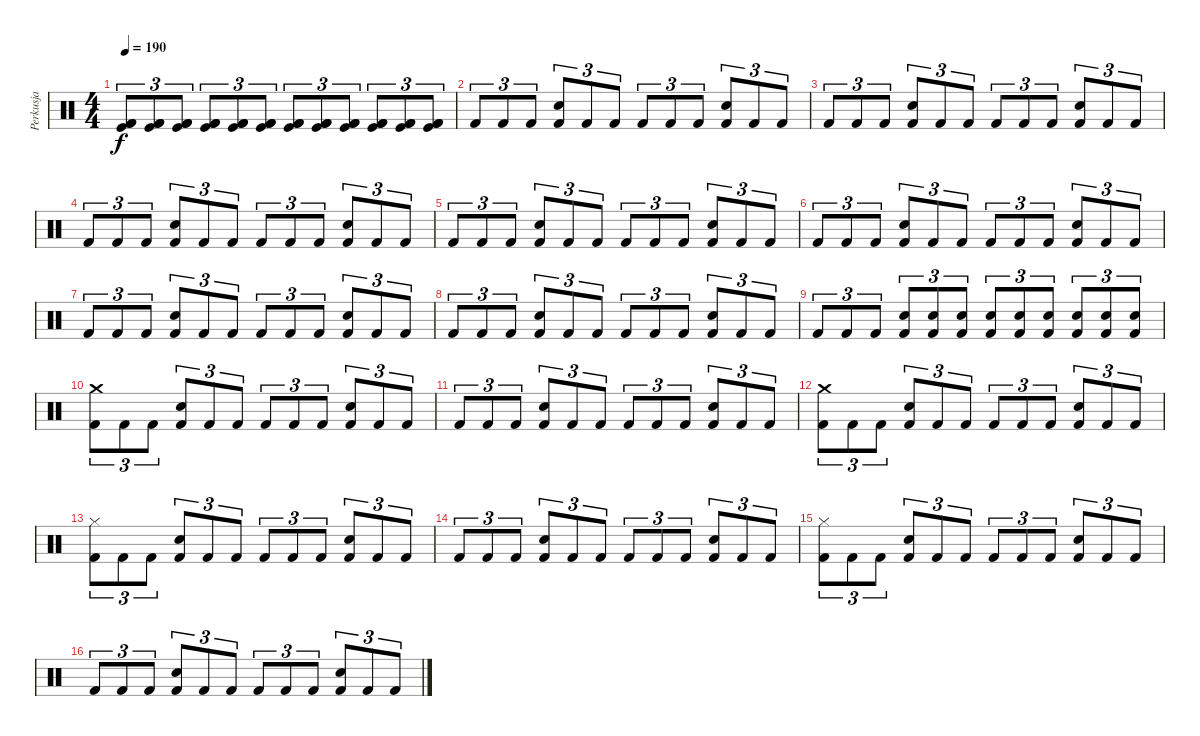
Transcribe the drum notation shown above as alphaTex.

\track ("Perkusja" "Perkusja") {instrument percussion}
\staff {score}
\articulation defaults
\ts (4 4)
\tempo 190
\clef neutral
\ks c
("Kick (hit) 2" "Kick (hit)" "Kick (hit) 2").8{tu (3 2) dy f balance 16} ("Kick (hit) 2" "Kick (hit)" "Kick (hit) 2").8{tu (3 2) balance 3} ("Kick (hit) 2" "Kick (hit)" "Kick (hit) 2").8{tu (3 2) balance 6} ("Kick (hit) 2" "Kick (hit)" "Kick (hit) 2").8{tu (3 2) balance 8} ("Kick (hit) 2" "Kick (hit)" "Kick (hit) 2").8{tu (3 2)} ("Kick (hit) 2" "Kick (hit)" "Kick (hit) 2").8{tu (3 2)} ("Kick (hit) 2" "Kick (hit)" "Kick (hit) 2").8{tu (3 2)} ("Kick (hit) 2" "Kick (hit)" "Kick (hit) 2").8{tu (3 2)} ("Kick (hit) 2" "Kick (hit)" "Kick (hit) 2").8{tu (3 2)} ("Kick (hit) 2" "Kick (hit)" "Kick (hit) 2").8{tu (3 2) balance 10} ("Kick (hit) 2" "Kick (hit)" "Kick (hit) 2").8{tu (3 2) balance 13} ("Kick (hit) 2" "Kick (hit)" "Kick (hit) 2").8{tu (3 2) balance 16} |
"Kick (hit) 2".8{tu (3 2) balance 8} "Kick (hit) 2".8{tu (3 2)} "Kick (hit) 2".8{tu (3 2)} ("Electric Snare (hit)" "Kick (hit) 2").8{tu (3 2)} "Kick (hit) 2".8{tu (3 2)} "Kick (hit) 2".8{tu (3 2)} "Kick (hit) 2".8{tu (3 2)} "Kick (hit) 2".8{tu (3 2)} "Kick (hit) 2".8{tu (3 2)} ("Electric Snare (hit)" "Kick (hit) 2").8{tu (3 2)} "Kick (hit) 2".8{tu (3 2)} "Kick (hit) 2".8{tu (3 2)} |
"Kick (hit) 2".8{tu (3 2)} "Kick (hit) 2".8{tu (3 2)} "Kick (hit) 2".8{tu (3 2)} ("Electric Snare (hit)" "Kick (hit) 2").8{tu (3 2)} "Kick (hit) 2".8{tu (3 2)} "Kick (hit) 2".8{tu (3 2)} "Kick (hit) 2".8{tu (3 2)} "Kick (hit) 2".8{tu (3 2)} "Kick (hit) 2".8{tu (3 2)} ("Electric Snare (hit)" "Kick (hit) 2").8{tu (3 2)} "Kick (hit) 2".8{tu (3 2)} "Kick (hit) 2".8{tu (3 2)} |
"Kick (hit) 2".8{tu (3 2)} "Kick (hit) 2".8{tu (3 2)} "Kick (hit) 2".8{tu (3 2)} ("Electric Snare (hit)" "Kick (hit) 2").8{tu (3 2)} "Kick (hit) 2".8{tu (3 2)} "Kick (hit) 2".8{tu (3 2)} "Kick (hit) 2".8{tu (3 2)} "Kick (hit) 2".8{tu (3 2)} "Kick (hit) 2".8{tu (3 2)} ("Electric Snare (hit)" "Kick (hit) 2").8{tu (3 2)} "Kick (hit) 2".8{tu (3 2)} "Kick (hit) 2".8{tu (3 2)} |
"Kick (hit) 2".8{tu (3 2)} "Kick (hit) 2".8{tu (3 2)} "Kick (hit) 2".8{tu (3 2)} ("Electric Snare (hit)" "Kick (hit) 2").8{tu (3 2)} "Kick (hit) 2".8{tu (3 2)} "Kick (hit) 2".8{tu (3 2)} "Kick (hit) 2".8{tu (3 2)} "Kick (hit) 2".8{tu (3 2)} "Kick (hit) 2".8{tu (3 2)} ("Electric Snare (hit)" "Kick (hit) 2").8{tu (3 2)} "Kick (hit) 2".8{tu (3 2)} "Kick (hit) 2".8{tu (3 2)} |
"Kick (hit) 2".8{tu (3 2)} "Kick (hit) 2".8{tu (3 2)} "Kick (hit) 2".8{tu (3 2)} ("Electric Snare (hit)" "Kick (hit) 2").8{tu (3 2)} "Kick (hit) 2".8{tu (3 2)} "Kick (hit) 2".8{tu (3 2)} "Kick (hit) 2".8{tu (3 2)} "Kick (hit) 2".8{tu (3 2)} "Kick (hit) 2".8{tu (3 2)} ("Electric Snare (hit)" "Kick (hit) 2").8{tu (3 2)} "Kick (hit) 2".8{tu (3 2)} "Kick (hit) 2".8{tu (3 2)} |
"Kick (hit) 2".8{tu (3 2)} "Kick (hit) 2".8{tu (3 2)} "Kick (hit) 2".8{tu (3 2)} ("Electric Snare (hit)" "Kick (hit) 2").8{tu (3 2)} "Kick (hit) 2".8{tu (3 2)} "Kick (hit) 2".8{tu (3 2)} "Kick (hit) 2".8{tu (3 2)} "Kick (hit) 2".8{tu (3 2)} "Kick (hit) 2".8{tu (3 2)} ("Electric Snare (hit)" "Kick (hit) 2").8{tu (3 2)} "Kick (hit) 2".8{tu (3 2)} "Kick (hit) 2".8{tu (3 2)} |
"Kick (hit) 2".8{tu (3 2)} "Kick (hit) 2".8{tu (3 2)} "Kick (hit) 2".8{tu (3 2)} ("Electric Snare (hit)" "Kick (hit) 2").8{tu (3 2)} "Kick (hit) 2".8{tu (3 2)} "Kick (hit) 2".8{tu (3 2)} "Kick (hit) 2".8{tu (3 2)} "Kick (hit) 2".8{tu (3 2)} "Kick (hit) 2".8{tu (3 2)} ("Electric Snare (hit)" "Kick (hit) 2").8{tu (3 2)} "Kick (hit) 2".8{tu (3 2)} "Kick (hit) 2".8{tu (3 2)} |
"Kick (hit) 2".8{tu (3 2)} "Kick (hit) 2".8{tu (3 2)} "Kick (hit) 2".8{tu (3 2)} ("Electric Snare (hit)" "Kick (hit) 2").8{tu (3 2) balance 16} ("Electric Snare (hit)" "Kick (hit) 2").8{tu (3 2) balance 14} ("Electric Snare (hit)" "Kick (hit) 2").8{tu (3 2) balance 11} ("Electric Snare (hit)" "Kick (hit) 2").8{tu (3 2) balance 8} ("Electric Snare (hit)" "Kick (hit) 2").8{tu (3 2)} ("Electric Snare (hit)" "Kick (hit) 2").8{tu (3 2)} ("Electric Snare (hit)" "Kick (hit) 2").8{tu (3 2) balance 5} ("Electric Snare (hit)" "Kick (hit) 2").8{tu (3 2) balance 2} ("Electric Snare (hit)" "Kick (hit) 2").8{tu (3 2) balance 0} |
("Crash medium (hit)" "Kick (hit) 2").8{tu (3 2) balance 8} "Kick (hit) 2".8{tu (3 2)} "Kick (hit) 2".8{tu (3 2)} ("Electric Snare (hit)" "Kick (hit) 2").8{tu (3 2)} "Kick (hit) 2".8{tu (3 2)} "Kick (hit) 2".8{tu (3 2)} "Kick (hit) 2".8{tu (3 2)} "Kick (hit) 2".8{tu (3 2)} "Kick (hit) 2".8{tu (3 2)} ("Electric Snare (hit)" "Kick (hit) 2").8{tu (3 2)} "Kick (hit) 2".8{tu (3 2)} "Kick (hit) 2".8{tu (3 2)} |
"Kick (hit) 2".8{tu (3 2)} "Kick (hit) 2".8{tu (3 2)} "Kick (hit) 2".8{tu (3 2)} ("Electric Snare (hit)" "Kick (hit) 2").8{tu (3 2)} "Kick (hit) 2".8{tu (3 2)} "Kick (hit) 2".8{tu (3 2)} "Kick (hit) 2".8{tu (3 2)} "Kick (hit) 2".8{tu (3 2)} "Kick (hit) 2".8{tu (3 2)} ("Electric Snare (hit)" "Kick (hit) 2").8{tu (3 2)} "Kick (hit) 2".8{tu (3 2)} "Kick (hit) 2".8{tu (3 2)} |
("Crash medium (hit)" "Kick (hit) 2").8{tu (3 2)} "Kick (hit) 2".8{tu (3 2)} "Kick (hit) 2".8{tu (3 2)} ("Electric Snare (hit)" "Kick (hit) 2").8{tu (3 2)} "Kick (hit) 2".8{tu (3 2)} "Kick (hit) 2".8{tu (3 2)} "Kick (hit) 2".8{tu (3 2)} "Kick (hit) 2".8{tu (3 2)} "Kick (hit) 2".8{tu (3 2)} ("Electric Snare (hit)" "Kick (hit) 2").8{tu (3 2)} "Kick (hit) 2".8{tu (3 2)} "Kick (hit) 2".8{tu (3 2)} |
("Hi-Hat (closed)" "Kick (hit) 2").8{tu (3 2)} "Kick (hit) 2".8{tu (3 2)} "Kick (hit) 2".8{tu (3 2)} ("Electric Snare (hit)" "Kick (hit) 2").8{tu (3 2)} "Kick (hit) 2".8{tu (3 2)} "Kick (hit) 2".8{tu (3 2)} "Kick (hit) 2".8{tu (3 2)} "Kick (hit) 2".8{tu (3 2)} "Kick (hit) 2".8{tu (3 2)} ("Electric Snare (hit)" "Kick (hit) 2").8{tu (3 2)} "Kick (hit) 2".8{tu (3 2)} "Kick (hit) 2".8{tu (3 2)} |
"Kick (hit) 2".8{tu (3 2)} "Kick (hit) 2".8{tu (3 2)} "Kick (hit) 2".8{tu (3 2)} ("Electric Snare (hit)" "Kick (hit) 2").8{tu (3 2)} "Kick (hit) 2".8{tu (3 2)} "Kick (hit) 2".8{tu (3 2)} "Kick (hit) 2".8{tu (3 2)} "Kick (hit) 2".8{tu (3 2)} "Kick (hit) 2".8{tu (3 2)} ("Electric Snare (hit)" "Kick (hit) 2").8{tu (3 2)} "Kick (hit) 2".8{tu (3 2)} "Kick (hit) 2".8{tu (3 2)} |
("Hi-Hat (closed)" "Kick (hit) 2").8{tu (3 2)} "Kick (hit) 2".8{tu (3 2)} "Kick (hit) 2".8{tu (3 2)} ("Electric Snare (hit)" "Kick (hit) 2").8{tu (3 2)} "Kick (hit) 2".8{tu (3 2)} "Kick (hit) 2".8{tu (3 2)} "Kick (hit) 2".8{tu (3 2)} "Kick (hit) 2".8{tu (3 2)} "Kick (hit) 2".8{tu (3 2)} ("Electric Snare (hit)" "Kick (hit) 2").8{tu (3 2)} "Kick (hit) 2".8{tu (3 2)} "Kick (hit) 2".8{tu (3 2)} |
"Kick (hit) 2".8{tu (3 2)} "Kick (hit) 2".8{tu (3 2)} "Kick (hit) 2".8{tu (3 2)} ("Electric Snare (hit)" "Kick (hit) 2").8{tu (3 2)} "Kick (hit) 2".8{tu (3 2)} "Kick (hit) 2".8{tu (3 2)} "Kick (hit) 2".8{tu (3 2)} "Kick (hit) 2".8{tu (3 2)} "Kick (hit) 2".8{tu (3 2)} ("Electric Snare (hit)" "Kick (hit) 2").8{tu (3 2)} "Kick (hit) 2".8{tu (3 2)} "Kick (hit) 2".8{tu (3 2)}
